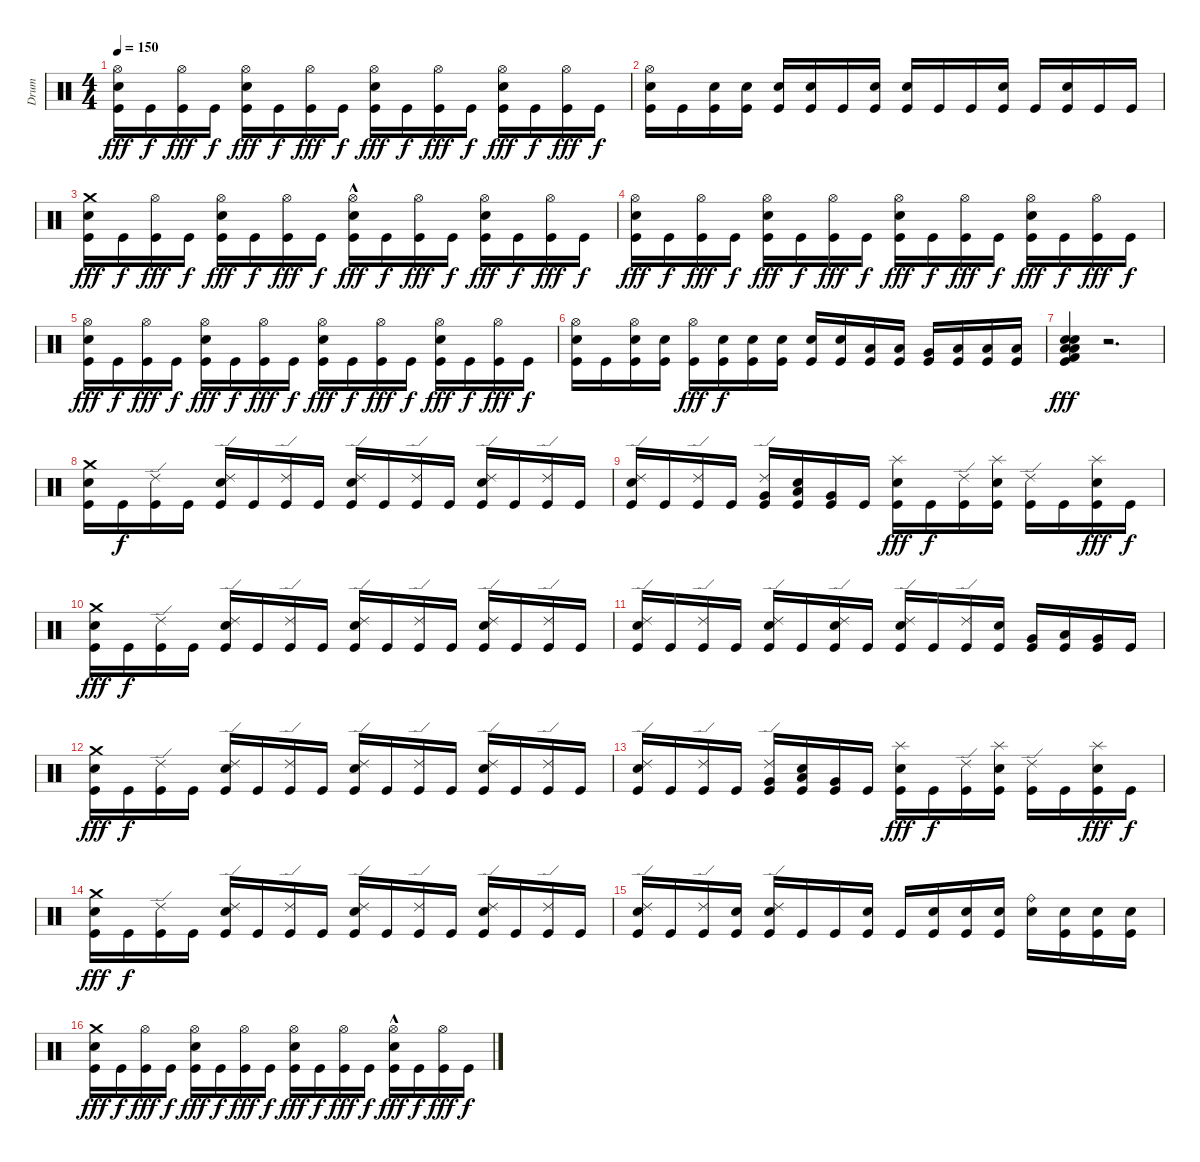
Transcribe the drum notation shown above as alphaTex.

\track ("Drum" "Drum") {instrument percussion}
\staff {score}
\articulation defaults
\ts (4 4)
\tempo 150
\clef neutral
\ks c
("Hi-Hat (open)" "Snare (hit) 2" "Kick (hit)").16{dy fff} "Kick (hit)".16{dy f} ("Hi-Hat (open)" "Kick (hit)").16{dy fff} "Kick (hit)".16{dy f} ("Hi-Hat (open)" "Snare (hit) 2" "Kick (hit)").16{dy fff} "Kick (hit)".16{dy f} ("Hi-Hat (open)" "Kick (hit)").16{dy fff} "Kick (hit)".16{dy f} ("Hi-Hat (open)" "Snare (hit) 2" "Kick (hit)").16{dy fff} "Kick (hit)".16{dy f} ("Hi-Hat (open)" "Kick (hit)").16{dy fff} "Kick (hit)".16{dy f} ("Hi-Hat (open)" "Snare (hit) 2" "Kick (hit)").16{dy fff} "Kick (hit)".16{dy f} ("Hi-Hat (open)" "Kick (hit)").16{dy fff} "Kick (hit)".16{dy f} |
("Hi-Hat (open)" "Snare (hit) 2" "Kick (hit)").16 "Kick (hit)".16 ("Snare (hit) 2" "Kick (hit)").16 ("Snare (hit) 2" "Kick (hit)").16 ("Snare (hit) 2" "Kick (hit)").16 ("Snare (hit) 2" "Kick (hit)").16 "Kick (hit)".16 ("Snare (hit) 2" "Kick (hit)").16 ("Snare (hit) 2" "Kick (hit)").16 "Kick (hit)".16 "Kick (hit)".16 ("Snare (hit) 2" "Kick (hit)").16 "Kick (hit)".16 ("Snare (hit) 2" "Kick (hit)").16 "Kick (hit)".16 "Kick (hit)".16 |
("Crash medium (hit)" "Snare (hit) 2" "Kick (hit)").16{dy fff} "Kick (hit)".16{dy f} ("Hi-Hat (open)" "Kick (hit)").16{dy fff} "Kick (hit)".16{dy f} ("Hi-Hat (open)" "Snare (hit) 2" "Kick (hit)").16{dy fff} "Kick (hit)".16{dy f} ("Hi-Hat (open)" "Kick (hit)").16{dy fff} "Kick (hit)".16{dy f} ("Hi-Hat (open)"{hac} "Snare (hit) 2" "Kick (hit)").16{dy fff} "Kick (hit)".16{dy f} ("Hi-Hat (open)" "Kick (hit)").16{dy fff} "Kick (hit)".16{dy f} ("Hi-Hat (open)" "Snare (hit) 2" "Kick (hit)").16{dy fff} "Kick (hit)".16{dy f} ("Hi-Hat (open)" "Kick (hit)").16{dy fff} "Kick (hit)".16{dy f} |
("Hi-Hat (open)" "Snare (hit) 2" "Kick (hit)").16{dy fff} "Kick (hit)".16{dy f} ("Hi-Hat (open)" "Kick (hit)").16{dy fff} "Kick (hit)".16{dy f} ("Hi-Hat (open)" "Snare (hit) 2" "Kick (hit)").16{dy fff} "Kick (hit)".16{dy f} ("Hi-Hat (open)" "Kick (hit)").16{dy fff} "Kick (hit)".16{dy f} ("Hi-Hat (open)" "Snare (hit) 2" "Kick (hit)").16{dy fff} "Kick (hit)".16{dy f} ("Hi-Hat (open)" "Kick (hit)").16{dy fff} "Kick (hit)".16{dy f} ("Hi-Hat (open)" "Snare (hit) 2" "Kick (hit)").16{dy fff} "Kick (hit)".16{dy f} ("Hi-Hat (open)" "Kick (hit)").16{dy fff} "Kick (hit)".16{dy f} |
("Hi-Hat (open)" "Snare (hit) 2" "Kick (hit)").16{dy fff} "Kick (hit)".16{dy f} ("Hi-Hat (open)" "Kick (hit)").16{dy fff} "Kick (hit)".16{dy f} ("Hi-Hat (open)" "Snare (hit) 2" "Kick (hit)").16{dy fff} "Kick (hit)".16{dy f} ("Hi-Hat (open)" "Kick (hit)").16{dy fff} "Kick (hit)".16{dy f} ("Hi-Hat (open)" "Snare (hit) 2" "Kick (hit)").16{dy fff} "Kick (hit)".16{dy f} ("Hi-Hat (open)" "Kick (hit)").16{dy fff} "Kick (hit)".16{dy f} ("Hi-Hat (open)" "Snare (hit) 2" "Kick (hit)").16{dy fff} "Kick (hit)".16{dy f} ("Hi-Hat (open)" "Kick (hit)").16{dy fff} "Kick (hit)".16{dy f} |
("Hi-Hat (open)" "Snare (hit) 2" "Kick (hit)").16 "Kick (hit)".16 ("Hi-Hat (open)" "Snare (hit) 2" "Kick (hit)").16 ("Snare (hit) 2" "Kick (hit)").16 ("Hi-Hat (open)" "Kick (hit)").16{dy fff} ("Snare (hit) 2" "Kick (hit)").16{dy f} ("Snare (hit) 2" "Kick (hit)").16 ("Snare (hit) 2" "Kick (hit)").16 ("Snare (hit) 2" "Kick (hit)").16 ("Snare (hit) 2" "Kick (hit)").16 ("Low Floor Tom (hit)" "Kick (hit)").16 ("Low Floor Tom (hit)" "Kick (hit)").16 ("Very Low Tom (hit)" "Kick (hit)").16 ("Low Floor Tom (hit)" "Kick (hit)").16 ("Low Tom (hit)" "Kick (hit)").16 ("Low Floor Tom (hit)" "Kick (hit)").16 |
("Kick (hit) 2" "Low Tom (hit)" "Snare (hit) 2" "Snare (hit) 2" "Low Tom (hit)" "Kick (hit)").4{dy fff} r.2{d} |
("Crash medium (hit)" "Snare (hit) 2" "Kick (hit)").16 "Kick (hit)".16{dy f} ("Ride (edge) 2" "Kick (hit)").16 "Kick (hit)".16 ("Ride (edge) 2" "Snare (hit) 2" "Kick (hit)").16 "Kick (hit)".16 ("Ride (edge) 2" "Kick (hit)").16 "Kick (hit)".16 ("Ride (edge) 2" "Snare (hit) 2" "Kick (hit)").16 "Kick (hit)".16 ("Ride (edge) 2" "Kick (hit)").16 "Kick (hit)".16 ("Ride (edge) 2" "Snare (hit) 2" "Kick (hit)").16 "Kick (hit)".16 ("Ride (edge) 2" "Kick (hit)").16 "Kick (hit)".16 |
("Ride (edge) 2" "Snare (hit) 2" "Kick (hit)").16 "Kick (hit)".16 ("Ride (edge) 2" "Kick (hit)").16 "Kick (hit)".16 ("Ride (edge) 2" "Very Low Tom (hit)" "Kick (hit)").16 ("Snare (hit) 2" "Low Floor Tom (hit)" "Kick (hit)").16 ("Very Low Tom (hit)" "Kick (hit)").16 "Kick (hit)".16 ("Splash (hit)" "Snare (hit) 2" "Kick (hit)").16{dy fff} "Kick (hit)".16{dy f} ("Ride (edge) 2" "Kick (hit)").16 ("Splash (hit)" "Snare (hit) 2" "Kick (hit)").16 ("Ride (edge) 2" "Kick (hit)").16 "Kick (hit)".16 ("Splash (hit)" "Snare (hit) 2" "Kick (hit)").16{dy fff} "Kick (hit)".16{dy f} |
("Crash medium (hit)" "Snare (hit) 2" "Kick (hit)").16{dy fff} "Kick (hit)".16{dy f} ("Ride (edge) 2" "Kick (hit)").16 "Kick (hit)".16 ("Ride (edge) 2" "Snare (hit) 2" "Kick (hit)").16 "Kick (hit)".16 ("Ride (edge) 2" "Kick (hit)").16 "Kick (hit)".16 ("Ride (edge) 2" "Snare (hit) 2" "Kick (hit)").16 "Kick (hit)".16 ("Ride (edge) 2" "Kick (hit)").16 "Kick (hit)".16 ("Ride (edge) 2" "Snare (hit) 2" "Kick (hit)").16 "Kick (hit)".16 ("Ride (edge) 2" "Kick (hit)").16 "Kick (hit)".16 |
("Ride (edge) 2" "Snare (hit) 2" "Kick (hit)").16 "Kick (hit)".16 ("Ride (edge) 2" "Kick (hit)").16 "Kick (hit)".16 ("Ride (edge) 2" "Snare (hit) 2" "Kick (hit)").16 "Kick (hit)".16 ("Ride (edge) 2" "Snare (hit) 2" "Kick (hit)").16 "Kick (hit)".16 ("Ride (edge) 2" "Snare (hit) 2" "Kick (hit)").16 "Kick (hit)".16 ("Ride (edge) 2" "Kick (hit)").16 ("Snare (hit) 2" "Kick (hit)").16 ("Very Low Tom (hit)" "Kick (hit)").16 ("Low Floor Tom (hit)" "Kick (hit)").16 ("Very Low Tom (hit)" "Kick (hit)").16 "Kick (hit)".16 |
("Crash medium (hit)" "Snare (hit) 2" "Kick (hit)").16{dy fff} "Kick (hit)".16{dy f} ("Ride (edge) 2" "Kick (hit)").16 "Kick (hit)".16 ("Ride (edge) 2" "Snare (hit) 2" "Kick (hit)").16 "Kick (hit)".16 ("Ride (edge) 2" "Kick (hit)").16 "Kick (hit)".16 ("Ride (edge) 2" "Snare (hit) 2" "Kick (hit)").16 "Kick (hit)".16 ("Ride (edge) 2" "Kick (hit)").16 "Kick (hit)".16 ("Ride (edge) 2" "Snare (hit) 2" "Kick (hit)").16 "Kick (hit)".16 ("Ride (edge) 2" "Kick (hit)").16 "Kick (hit)".16 |
("Ride (edge) 2" "Snare (hit) 2" "Kick (hit)").16 "Kick (hit)".16 ("Ride (edge) 2" "Kick (hit)").16 "Kick (hit)".16 ("Ride (edge) 2" "Very Low Tom (hit)" "Kick (hit)").16 ("Snare (hit) 2" "Low Floor Tom (hit)" "Kick (hit)").16 ("Very Low Tom (hit)" "Kick (hit)").16 "Kick (hit)".16 ("Splash (hit)" "Snare (hit) 2" "Kick (hit)").16{dy fff} "Kick (hit)".16{dy f} ("Ride (edge) 2" "Kick (hit)").16 ("Splash (hit)" "Snare (hit) 2" "Kick (hit)").16 ("Ride (edge) 2" "Kick (hit)").16 "Kick (hit)".16 ("Splash (hit)" "Snare (hit) 2" "Kick (hit)").16{dy fff} "Kick (hit)".16{dy f} |
("Crash medium (hit)" "Snare (hit) 2" "Kick (hit)").16{dy fff} "Kick (hit)".16{dy f} ("Ride (edge) 2" "Kick (hit)").16 "Kick (hit)".16 ("Ride (edge) 2" "Snare (hit) 2" "Kick (hit)").16 "Kick (hit)".16 ("Ride (edge) 2" "Kick (hit)").16 "Kick (hit)".16 ("Ride (edge) 2" "Snare (hit) 2" "Kick (hit)").16 "Kick (hit)".16 ("Ride (edge) 2" "Kick (hit)").16 "Kick (hit)".16 ("Ride (edge) 2" "Snare (hit) 2" "Kick (hit)").16 "Kick (hit)".16 ("Ride (edge) 2" "Kick (hit)").16 "Kick (hit)".16 |
("Ride (edge) 2" "Snare (hit) 2" "Kick (hit)").16 "Kick (hit)".16 ("Ride (edge) 2" "Kick (hit)").16 ("Snare (hit) 2" "Kick (hit)").16 ("Ride (edge) 2" "Snare (hit) 2" "Kick (hit)").16 "Kick (hit)".16 "Kick (hit)".16 ("Snare (hit) 2" "Kick (hit)").16 "Kick (hit)".16 ("Snare (hit) 2" "Kick (hit)").16 ("Snare (hit) 2" "Kick (hit)").16 ("Snare (hit) 2" "Kick (hit)").16 ("Snare (hit) 2" "Ride (bell)").16 ("Snare (hit) 2" "Kick (hit)").16 ("Snare (hit) 2" "Kick (hit)").16 ("Snare (hit) 2" "Kick (hit)").16 |
("Crash medium (hit)" "Snare (hit) 2" "Kick (hit)").16{dy fff} "Kick (hit)".16{dy f} ("Hi-Hat (open)" "Kick (hit)").16{dy fff} "Kick (hit)".16{dy f} ("Hi-Hat (open)" "Snare (hit) 2" "Kick (hit)").16{dy fff} "Kick (hit)".16{dy f} ("Hi-Hat (open)" "Kick (hit)").16{dy fff} "Kick (hit)".16{dy f} ("Hi-Hat (open)" "Snare (hit) 2" "Kick (hit)").16{dy fff} "Kick (hit)".16{dy f} ("Hi-Hat (open)" "Kick (hit)").16{dy fff} "Kick (hit)".16{dy f} ("Hi-Hat (open)"{hac} "Snare (hit) 2" "Kick (hit)").16{dy fff} "Kick (hit)".16{dy f} ("Hi-Hat (open)" "Kick (hit)").16{dy fff} "Kick (hit)".16{dy f}
